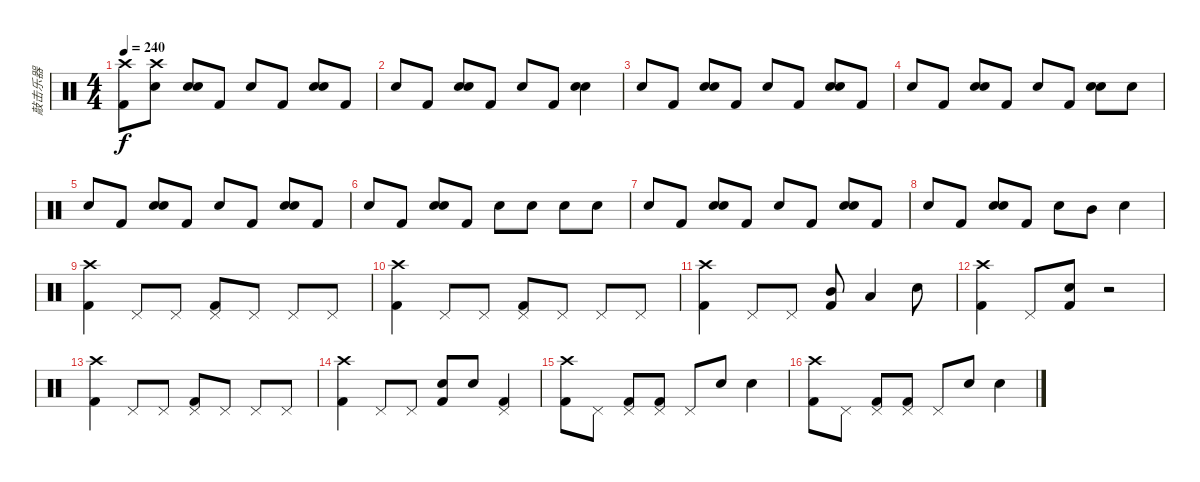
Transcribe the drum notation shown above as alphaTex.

\track ("敲击乐器" "敲击乐器") {instrument percussion}
\staff {score}
\articulation defaults
\ts (4 4)
\tempo 240
\clef neutral
\ks c
("Crash high (hit)" "Kick (hit) 2").8{dy f} ("Crash high (hit)" "Electric Snare (hit)").8 ("Electric Snare (hit)" "Snare (hit) 2").8 "Kick (hit) 2".8 "Snare (hit) 2".8 "Kick (hit) 2".8 ("Electric Snare (hit)" "Snare (hit) 2").8 "Kick (hit) 2".8 |
"Snare (hit) 2".8 "Kick (hit) 2".8 ("Electric Snare (hit)" "Snare (hit) 2").8 "Kick (hit) 2".8 "Snare (hit) 2".8 "Kick (hit) 2".8 ("Electric Snare (hit)" "Snare (hit) 2").4 |
"Snare (hit) 2".8 "Kick (hit) 2".8 ("Electric Snare (hit)" "Snare (hit) 2").8 "Kick (hit) 2".8 "Snare (hit) 2".8 "Kick (hit) 2".8 ("Electric Snare (hit)" "Snare (hit) 2").8 "Kick (hit) 2".8 |
"Snare (hit) 2".8 "Kick (hit) 2".8 ("Electric Snare (hit)" "Snare (hit) 2").8 "Kick (hit) 2".8 "Snare (hit) 2".8 "Kick (hit) 2".8 ("Electric Snare (hit)" "Snare (hit) 2").8 "Electric Snare (hit)".8 |
"Snare (hit) 2".8 "Kick (hit) 2".8 ("Electric Snare (hit)" "Snare (hit) 2").8 "Kick (hit) 2".8 "Snare (hit) 2".8 "Kick (hit) 2".8 ("Electric Snare (hit)" "Snare (hit) 2").8 "Kick (hit) 2".8 |
"Snare (hit) 2".8 "Kick (hit) 2".8 ("Electric Snare (hit)" "Snare (hit) 2").8 "Kick (hit) 2".8 "Snare (hit) 2".8 "Electric Snare (hit)".8 "Electric Snare (hit)".8 "Electric Snare (hit)".8 |
"Snare (hit) 2".8 "Kick (hit) 2".8 ("Electric Snare (hit)" "Snare (hit) 2").8 "Kick (hit) 2".8 "Snare (hit) 2".8 "Kick (hit) 2".8 ("Electric Snare (hit)" "Snare (hit) 2").8 "Kick (hit) 2".8 |
"Snare (hit) 2".8 "Kick (hit) 2".8 ("Electric Snare (hit)" "Snare (hit) 2").8 "Kick (hit) 2".8 "Electric Snare (hit)".8 "Mid Tom (hit)".8 "Snare (hit) 2".4 |
("Crash high (hit)" "Kick (hit) 2").4 "Pedal Hi-Hat (hit)".8 "Pedal Hi-Hat (hit)".8 ("Pedal Hi-Hat (hit)" "Kick (hit) 2").8 "Pedal Hi-Hat (hit)".8 "Pedal Hi-Hat (hit)".8 "Pedal Hi-Hat (hit)".8 |
("Crash high (hit)" "Kick (hit) 2").4 "Pedal Hi-Hat (hit)".8 "Pedal Hi-Hat (hit)".8 ("Pedal Hi-Hat (hit)" "Kick (hit) 2").8 "Pedal Hi-Hat (hit)".8 "Pedal Hi-Hat (hit)".8 "Pedal Hi-Hat (hit)".8 |
("Crash high (hit)" "Kick (hit) 2").4 "Pedal Hi-Hat (hit)".8 "Pedal Hi-Hat (hit)".8 ("Mid Tom (hit)" "Kick (hit) 2").8 "Low Tom (hit)".4 "Snare (hit) 2".8 |
("Crash high (hit)" "Kick (hit) 2").4 "Pedal Hi-Hat (hit)".8 ("Electric Snare (hit)" "Kick (hit) 2").8 r.2 |
("Crash high (hit)" "Kick (hit) 2").4 "Pedal Hi-Hat (hit)".8 "Pedal Hi-Hat (hit)".8 ("Pedal Hi-Hat (hit)" "Kick (hit) 2").8 "Pedal Hi-Hat (hit)".8 "Pedal Hi-Hat (hit)".8 "Pedal Hi-Hat (hit)".8 |
("Crash high (hit)" "Kick (hit) 2").4 "Pedal Hi-Hat (hit)".8 "Pedal Hi-Hat (hit)".8 ("Electric Snare (hit)" "Kick (hit) 2").8 "Electric Snare (hit)".8 ("Pedal Hi-Hat (hit)" "Kick (hit) 2").4 |
("Crash high (hit)" "Kick (hit) 2").8 "Pedal Hi-Hat (hit)".8 ("Pedal Hi-Hat (hit)" "Kick (hit) 2").8 ("Pedal Hi-Hat (hit)" "Kick (hit) 2").8 "Pedal Hi-Hat (hit)".8 "Electric Snare (hit)".8 "Electric Snare (hit)".4 |
("Crash high (hit)" "Kick (hit) 2").8 "Pedal Hi-Hat (hit)".8 ("Pedal Hi-Hat (hit)" "Kick (hit) 2").8 ("Pedal Hi-Hat (hit)" "Kick (hit) 2").8 "Pedal Hi-Hat (hit)".8 "Electric Snare (hit)".8 "Electric Snare (hit)".4
